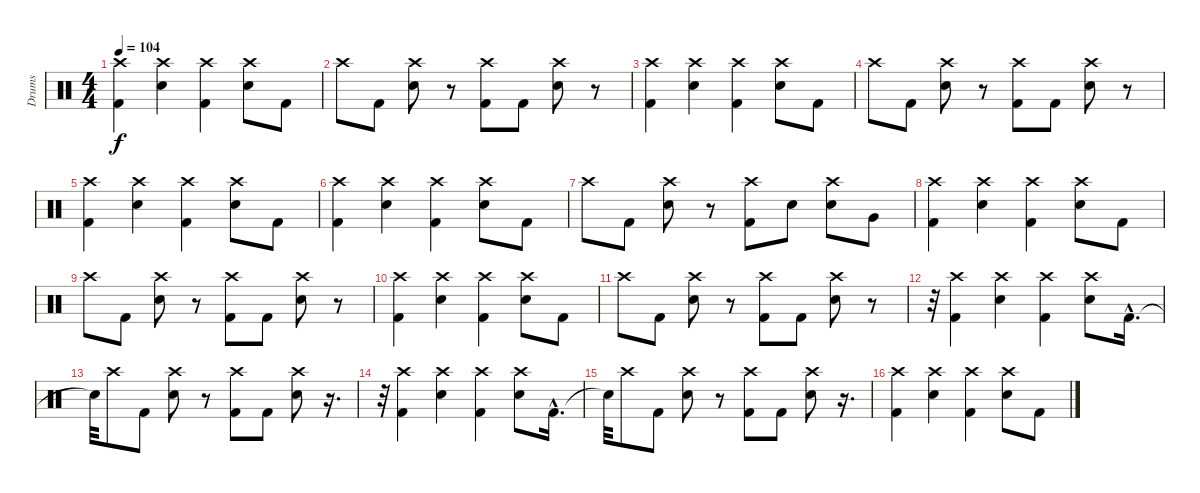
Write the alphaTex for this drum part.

\track ("Drums" "Drums") {instrument percussion}
\staff {score}
\articulation defaults
\ts (4 4)
\tempo 104
\clef neutral
\ks c
("Crash high (hit)" "Kick (hit) 2").4{dy f} ("Crash high (hit)" "Electric Snare (hit)").4 ("Crash high (hit)" "Kick (hit) 2").4 ("Crash high (hit)" "Electric Snare (hit)").8 "Kick (hit) 2".8 |
"Crash high (hit)".8 "Kick (hit) 2".8 ("Crash high (hit)" "Electric Snare (hit)").8 r.8 ("Crash high (hit)" "Kick (hit) 2").8 "Kick (hit) 2".8 ("Crash high (hit)" "Electric Snare (hit)").8 r.8 |
("Crash high (hit)" "Kick (hit) 2").4 ("Crash high (hit)" "Electric Snare (hit)").4 ("Crash high (hit)" "Kick (hit) 2").4 ("Crash high (hit)" "Electric Snare (hit)").8 "Kick (hit) 2".8 |
"Crash high (hit)".8 "Kick (hit) 2".8 ("Crash high (hit)" "Electric Snare (hit)").8 r.8 ("Crash high (hit)" "Kick (hit) 2").8 "Kick (hit) 2".8 ("Crash high (hit)" "Electric Snare (hit)").8 r.8 |
("Crash high (hit)" "Kick (hit) 2").4 ("Crash high (hit)" "Electric Snare (hit)").4 ("Crash high (hit)" "Kick (hit) 2").4 ("Crash high (hit)" "Electric Snare (hit)").8 "Kick (hit) 2".8 |
("Crash high (hit)" "Kick (hit) 2").4 ("Crash high (hit)" "Electric Snare (hit)").4 ("Crash high (hit)" "Kick (hit) 2").4 ("Crash high (hit)" "Electric Snare (hit)").8 "Kick (hit) 2".8 |
"Crash high (hit)".8 "Kick (hit) 2".8 ("Crash high (hit)" "Electric Snare (hit)").8 r.8 ("Crash high (hit)" "Kick (hit) 2").8 "Electric Snare (hit)".8 ("Crash high (hit)" "Electric Snare (hit)").8 "Very Low Tom (hit)".8 |
("Crash high (hit)" "Kick (hit) 2").4 ("Crash high (hit)" "Electric Snare (hit)").4 ("Crash high (hit)" "Kick (hit) 2").4 ("Crash high (hit)" "Electric Snare (hit)").8 "Kick (hit) 2".8 |
"Crash high (hit)".8 "Kick (hit) 2".8 ("Crash high (hit)" "Electric Snare (hit)").8 r.8 ("Crash high (hit)" "Kick (hit) 2").8 "Kick (hit) 2".8 ("Crash high (hit)" "Electric Snare (hit)").8 r.8 |
("Crash high (hit)" "Kick (hit) 2").4 ("Crash high (hit)" "Electric Snare (hit)").4 ("Crash high (hit)" "Kick (hit) 2").4 ("Crash high (hit)" "Electric Snare (hit)").8 "Kick (hit) 2".8 |
"Crash high (hit)".8 "Kick (hit) 2".8 ("Crash high (hit)" "Electric Snare (hit)").8 r.8 ("Crash high (hit)" "Kick (hit) 2").8 "Kick (hit) 2".8 ("Crash high (hit)" "Electric Snare (hit)").8 r.8 |
r.32 ("Crash high (hit)" "Kick (hit) 2").4 ("Crash high (hit)" "Electric Snare (hit)").4 ("Crash high (hit)" "Kick (hit) 2").4 ("Crash high (hit)" "Electric Snare (hit)").8 "Kick (hit) 2"{hac}.16{d} |
"Snare (hit)"{t}.32 "Crash high (hit)".8 "Kick (hit) 2".8 ("Crash high (hit)" "Electric Snare (hit)").8 r.8 ("Crash high (hit)" "Kick (hit) 2").8 "Kick (hit) 2".8 ("Crash high (hit)" "Electric Snare (hit)").8 r.16{d} |
r.32 ("Crash high (hit)" "Kick (hit) 2").4 ("Crash high (hit)" "Electric Snare (hit)").4 ("Crash high (hit)" "Kick (hit) 2").4 ("Crash high (hit)" "Electric Snare (hit)").8 "Kick (hit) 2"{hac}.16{d} |
"Snare (hit)"{t}.32 "Crash high (hit)".8 "Kick (hit) 2".8 ("Crash high (hit)" "Electric Snare (hit)").8 r.8 ("Crash high (hit)" "Kick (hit) 2").8 "Kick (hit) 2".8 ("Crash high (hit)" "Electric Snare (hit)").8 r.16{d} |
("Crash high (hit)" "Kick (hit) 2").4 ("Crash high (hit)" "Electric Snare (hit)").4 ("Crash high (hit)" "Kick (hit) 2").4 ("Crash high (hit)" "Electric Snare (hit)").8 "Kick (hit) 2".8
